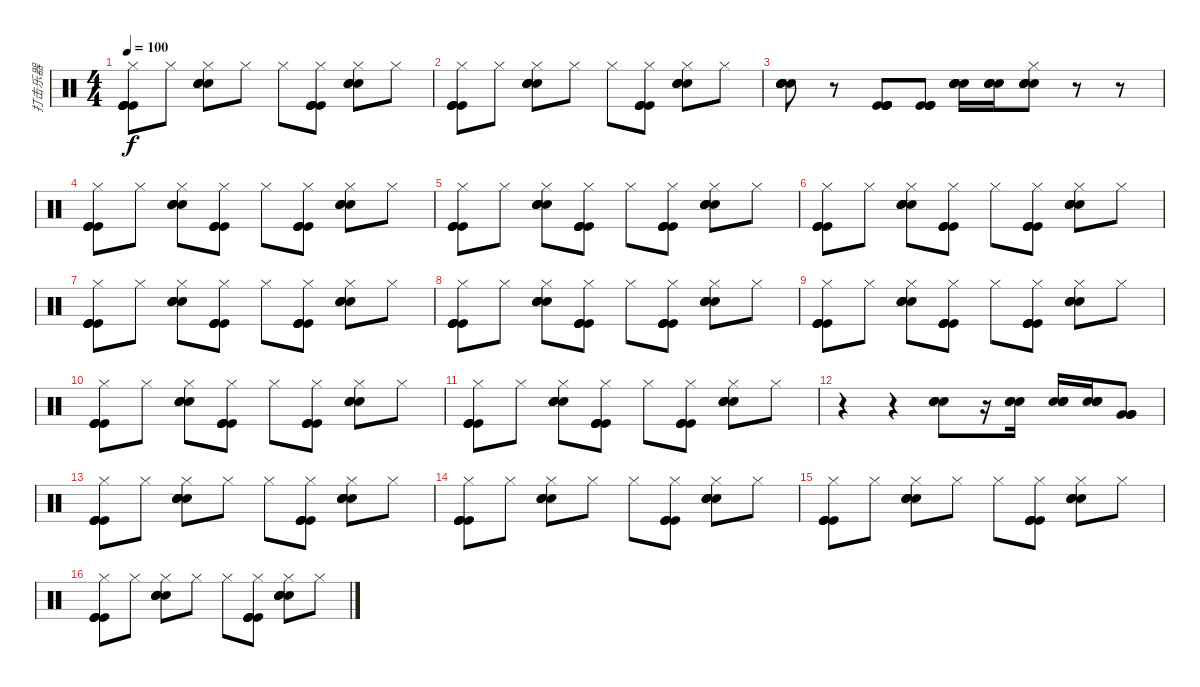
\track ("打击乐器" "打击乐器") {instrument percussion}
\staff {score}
\articulation defaults
\ts (4 4)
\tempo 100
\clef neutral
\ks c
("Hi-Hat (closed)" "Kick (hit)" "Kick (hit)" "Kick (hit)" "Kick (hit)").8{dy f} "Hi-Hat (closed)".8 ("Hi-Hat (closed)" "Snare (hit) 2" "Snare (hit) 2" "Snare (hit) 2" "Snare (hit) 2").8 "Hi-Hat (closed)".8 "Hi-Hat (closed)".8 ("Hi-Hat (closed)" "Kick (hit)" "Kick (hit)" "Kick (hit)" "Kick (hit)").8 ("Hi-Hat (closed)" "Snare (hit) 2" "Snare (hit) 2" "Snare (hit) 2" "Snare (hit) 2").8 "Hi-Hat (closed)".8 |
("Hi-Hat (closed)" "Kick (hit)" "Kick (hit)" "Kick (hit)" "Kick (hit)").8 "Hi-Hat (closed)".8 ("Hi-Hat (closed)" "Snare (hit) 2" "Snare (hit) 2" "Snare (hit) 2" "Snare (hit) 2").8 "Hi-Hat (closed)".8 "Hi-Hat (closed)".8 ("Hi-Hat (closed)" "Kick (hit)" "Kick (hit)" "Kick (hit)" "Kick (hit)").8 ("Hi-Hat (closed)" "Snare (hit) 2" "Snare (hit) 2" "Snare (hit) 2" "Snare (hit) 2").8 "Hi-Hat (closed)".8 |
("Snare (hit) 2" "Snare (hit) 2" "Snare (hit) 2" "Snare (hit) 2" "Snare (hit) 2").8 r.8 ("Kick (hit)" "Kick (hit)" "Kick (hit)" "Kick (hit)" "Kick (hit)").8 ("Kick (hit)" "Kick (hit)" "Kick (hit)" "Kick (hit)" "Kick (hit)").8 ("Snare (hit) 2" "Snare (hit) 2" "Snare (hit) 2" "Snare (hit) 2").16 ("Snare (hit) 2" "Snare (hit) 2" "Snare (hit) 2" "Snare (hit) 2").16 ("Hi-Hat (closed)" "Snare (hit) 2" "Snare (hit) 2" "Snare (hit) 2" "Snare (hit) 2").8 r.8 r.8 |
("Hi-Hat (closed)" "Kick (hit)" "Kick (hit)" "Kick (hit)" "Kick (hit)").8 "Hi-Hat (closed)".8 ("Hi-Hat (closed)" "Snare (hit) 2" "Snare (hit) 2" "Snare (hit) 2" "Snare (hit) 2").8 ("Hi-Hat (closed)" "Kick (hit)" "Kick (hit)" "Kick (hit)" "Kick (hit)").8 "Hi-Hat (closed)".8 ("Hi-Hat (closed)" "Kick (hit)" "Kick (hit)" "Kick (hit)" "Kick (hit)").8 ("Hi-Hat (closed)" "Snare (hit) 2" "Snare (hit) 2" "Snare (hit) 2" "Snare (hit) 2").8 "Hi-Hat (closed)".8 |
("Hi-Hat (closed)" "Kick (hit)" "Kick (hit)" "Kick (hit)" "Kick (hit)").8 "Hi-Hat (closed)".8 ("Hi-Hat (closed)" "Snare (hit) 2" "Snare (hit) 2" "Snare (hit) 2" "Snare (hit) 2").8 ("Hi-Hat (closed)" "Kick (hit)" "Kick (hit)" "Kick (hit)" "Kick (hit)").8 "Hi-Hat (closed)".8 ("Hi-Hat (closed)" "Kick (hit)" "Kick (hit)" "Kick (hit)" "Kick (hit)").8 ("Hi-Hat (closed)" "Snare (hit) 2" "Snare (hit) 2" "Snare (hit) 2" "Snare (hit) 2").8 "Hi-Hat (closed)".8 |
("Hi-Hat (closed)" "Kick (hit)" "Kick (hit)" "Kick (hit)" "Kick (hit)").8 "Hi-Hat (closed)".8 ("Hi-Hat (closed)" "Snare (hit) 2" "Snare (hit) 2" "Snare (hit) 2" "Snare (hit) 2").8 ("Hi-Hat (closed)" "Kick (hit)" "Kick (hit)" "Kick (hit)" "Kick (hit)").8 "Hi-Hat (closed)".8 ("Hi-Hat (closed)" "Kick (hit)" "Kick (hit)" "Kick (hit)" "Kick (hit)").8 ("Hi-Hat (closed)" "Snare (hit) 2" "Snare (hit) 2" "Snare (hit) 2" "Snare (hit) 2").8 "Hi-Hat (closed)".8 |
("Hi-Hat (closed)" "Kick (hit)" "Kick (hit)" "Kick (hit)" "Kick (hit)").8 "Hi-Hat (closed)".8 ("Hi-Hat (closed)" "Snare (hit) 2" "Snare (hit) 2" "Snare (hit) 2" "Snare (hit) 2").8 ("Hi-Hat (closed)" "Kick (hit)" "Kick (hit)" "Kick (hit)" "Kick (hit)").8 "Hi-Hat (closed)".8 ("Hi-Hat (closed)" "Kick (hit)" "Kick (hit)" "Kick (hit)" "Kick (hit)").8 ("Hi-Hat (closed)" "Snare (hit) 2" "Snare (hit) 2" "Snare (hit) 2" "Snare (hit) 2").8 "Hi-Hat (closed)".8 |
("Hi-Hat (closed)" "Kick (hit)" "Kick (hit)" "Kick (hit)" "Kick (hit)").8 "Hi-Hat (closed)".8 ("Hi-Hat (closed)" "Snare (hit) 2" "Snare (hit) 2" "Snare (hit) 2" "Snare (hit) 2").8 ("Hi-Hat (closed)" "Kick (hit)" "Kick (hit)" "Kick (hit)" "Kick (hit)").8 "Hi-Hat (closed)".8 ("Hi-Hat (closed)" "Kick (hit)" "Kick (hit)" "Kick (hit)" "Kick (hit)").8 ("Hi-Hat (closed)" "Snare (hit) 2" "Snare (hit) 2" "Snare (hit) 2" "Snare (hit) 2").8 "Hi-Hat (closed)".8 |
("Hi-Hat (closed)" "Kick (hit)" "Kick (hit)" "Kick (hit)" "Kick (hit)").8 "Hi-Hat (closed)".8 ("Hi-Hat (closed)" "Snare (hit) 2" "Snare (hit) 2" "Snare (hit) 2" "Snare (hit) 2").8 ("Hi-Hat (closed)" "Kick (hit)" "Kick (hit)" "Kick (hit)" "Kick (hit)").8 "Hi-Hat (closed)".8 ("Hi-Hat (closed)" "Kick (hit)" "Kick (hit)" "Kick (hit)" "Kick (hit)").8 ("Hi-Hat (closed)" "Snare (hit) 2" "Snare (hit) 2" "Snare (hit) 2" "Snare (hit) 2").8 "Hi-Hat (closed)".8 |
("Hi-Hat (closed)" "Kick (hit)" "Kick (hit)" "Kick (hit)" "Kick (hit)").8 "Hi-Hat (closed)".8 ("Hi-Hat (closed)" "Snare (hit) 2" "Snare (hit) 2" "Snare (hit) 2" "Snare (hit) 2").8 ("Hi-Hat (closed)" "Kick (hit)" "Kick (hit)" "Kick (hit)" "Kick (hit)").8 "Hi-Hat (closed)".8 ("Hi-Hat (closed)" "Kick (hit)" "Kick (hit)" "Kick (hit)" "Kick (hit)").8 ("Hi-Hat (closed)" "Snare (hit) 2" "Snare (hit) 2" "Snare (hit) 2" "Snare (hit) 2").8 "Hi-Hat (closed)".8 |
("Hi-Hat (closed)" "Kick (hit)" "Kick (hit)" "Kick (hit)" "Kick (hit)").8 "Hi-Hat (closed)".8 ("Hi-Hat (closed)" "Snare (hit) 2" "Snare (hit) 2" "Snare (hit) 2" "Snare (hit) 2").8 ("Hi-Hat (closed)" "Kick (hit)" "Kick (hit)" "Kick (hit)" "Kick (hit)").8 "Hi-Hat (closed)".8 ("Hi-Hat (closed)" "Kick (hit)" "Kick (hit)" "Kick (hit)" "Kick (hit)").8 ("Hi-Hat (closed)" "Snare (hit) 2" "Snare (hit) 2" "Snare (hit) 2" "Snare (hit) 2").8 "Hi-Hat (closed)".8 |
r.4 r.4 ("Snare (hit) 2" "Snare (hit) 2" "Snare (hit) 2").8 r.16 ("Snare (hit) 2" "Snare (hit) 2" "Snare (hit) 2").16 ("Snare (hit) 2" "Snare (hit) 2" "Snare (hit) 2" "Snare (hit) 2").16 ("Snare (hit) 2" "Snare (hit) 2" "Snare (hit) 2" "Snare (hit) 2").16 ("Very Low Tom (hit)" "Very Low Tom (hit)" "Very Low Tom (hit)" "Very Low Tom (hit)").8 |
("Hi-Hat (closed)" "Kick (hit)" "Kick (hit)" "Kick (hit)" "Kick (hit)").8 "Hi-Hat (closed)".8 ("Hi-Hat (closed)" "Snare (hit) 2" "Snare (hit) 2" "Snare (hit) 2" "Snare (hit) 2").8 "Hi-Hat (closed)".8 "Hi-Hat (closed)".8 ("Hi-Hat (closed)" "Kick (hit)" "Kick (hit)" "Kick (hit)" "Kick (hit)").8 ("Hi-Hat (closed)" "Snare (hit) 2" "Snare (hit) 2" "Snare (hit) 2" "Snare (hit) 2").8 "Hi-Hat (closed)".8 |
("Hi-Hat (closed)" "Kick (hit)" "Kick (hit)" "Kick (hit)" "Kick (hit)").8 "Hi-Hat (closed)".8 ("Hi-Hat (closed)" "Snare (hit) 2" "Snare (hit) 2" "Snare (hit) 2" "Snare (hit) 2").8 "Hi-Hat (closed)".8 "Hi-Hat (closed)".8 ("Hi-Hat (closed)" "Kick (hit)" "Kick (hit)" "Kick (hit)" "Kick (hit)").8 ("Hi-Hat (closed)" "Snare (hit) 2" "Snare (hit) 2" "Snare (hit) 2" "Snare (hit) 2").8 "Hi-Hat (closed)".8 |
("Hi-Hat (closed)" "Kick (hit)" "Kick (hit)" "Kick (hit)" "Kick (hit)").8 "Hi-Hat (closed)".8 ("Hi-Hat (closed)" "Snare (hit) 2" "Snare (hit) 2" "Snare (hit) 2" "Snare (hit) 2").8 "Hi-Hat (closed)".8 "Hi-Hat (closed)".8 ("Hi-Hat (closed)" "Kick (hit)" "Kick (hit)" "Kick (hit)" "Kick (hit)").8 ("Hi-Hat (closed)" "Snare (hit) 2" "Snare (hit) 2" "Snare (hit) 2" "Snare (hit) 2").8 "Hi-Hat (closed)".8 |
("Hi-Hat (closed)" "Kick (hit)" "Kick (hit)" "Kick (hit)" "Kick (hit)").8 "Hi-Hat (closed)".8 ("Hi-Hat (closed)" "Snare (hit) 2" "Snare (hit) 2" "Snare (hit) 2" "Snare (hit) 2").8 "Hi-Hat (closed)".8 "Hi-Hat (closed)".8 ("Hi-Hat (closed)" "Kick (hit)" "Kick (hit)" "Kick (hit)" "Kick (hit)").8 ("Hi-Hat (closed)" "Snare (hit) 2" "Snare (hit) 2" "Snare (hit) 2" "Snare (hit) 2").8 "Hi-Hat (closed)".8
